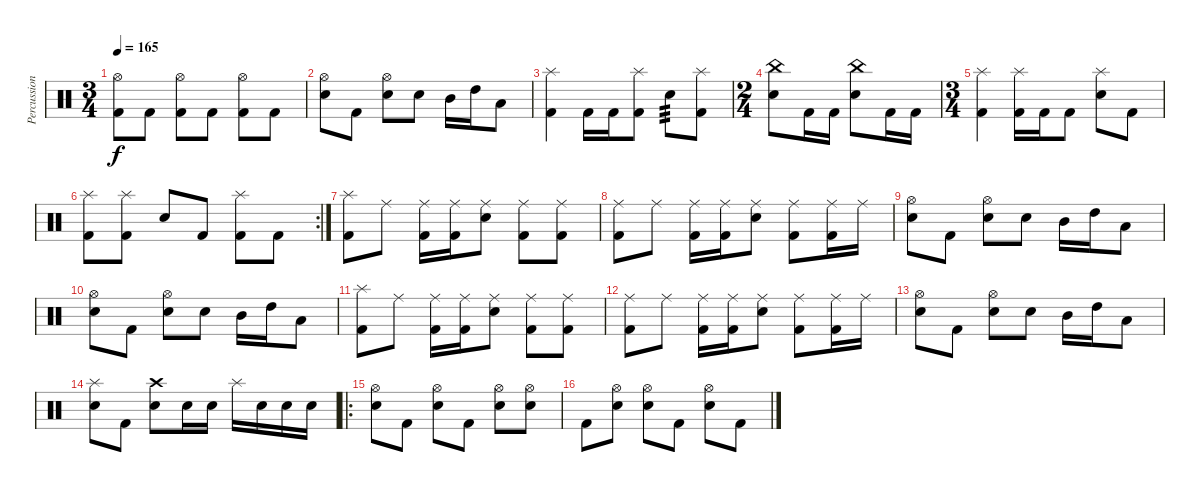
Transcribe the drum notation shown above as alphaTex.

\track ("Percussion" "Percussion") {instrument percussion}
\staff {score}
\articulation defaults
\ts (3 4)
\tempo 165
\clef neutral
\ks c
("Hi-Hat (open)" "Kick (hit) 2").8{dy f} "Kick (hit) 2".8 ("Hi-Hat (open)" "Kick (hit) 2").8 "Kick (hit) 2".8 ("Hi-Hat (open)" "Kick (hit) 2").8 "Kick (hit) 2".8 |
("Hi-Hat (open)" "Electric Snare (hit)").8 "Kick (hit) 2".8 ("Hi-Hat (open)" "Electric Snare (hit)").8 "Electric Snare (hit)".8 "Mid Tom (hit)".16 "High Tom (hit)".16 "Low Tom (hit)".8 |
("Splash (hit)" "Kick (hit) 2").4 "Kick (hit) 2".16 "Kick (hit) 2".16 ("Splash (hit)" "Kick (hit) 2").8 "Electric Snare (hit)".8{tp 3} ("Splash (hit)" "Kick (hit) 2").8 |
\ts (2 4)
("China (hit)" "Electric Snare (hit)").8 "Kick (hit) 2".16 "Kick (hit) 2".16 ("China (hit)" "Electric Snare (hit)").8 "Kick (hit) 2".16 "Kick (hit) 2".16 |
\ts (3 4)
("Splash (hit)" "Kick (hit) 2").4 ("Splash (hit)" "Kick (hit) 2").16 "Kick (hit) 2".16 "Kick (hit) 2".8 ("Splash (hit)" "Electric Snare (hit)").8 "Kick (hit) 2".8 |
\rc 2
("Splash (hit)" "Kick (hit) 2").8 ("Splash (hit)" "Kick (hit) 2").8 "Electric Snare (hit)".8 "Kick (hit) 2".8 ("Splash (hit)" "Kick (hit) 2").8 "Kick (hit) 2".8 |
("Splash (hit)" "Kick (hit) 2").8 "Ride (middle)".8 ("Ride (middle)" "Kick (hit) 2").16 ("Ride (middle)" "Kick (hit) 2").16 ("Ride (middle)" "Electric Snare (hit)").8 ("Ride (middle)" "Kick (hit) 2").8 ("Ride (middle)" "Kick (hit) 2").8 |
("Ride (middle)" "Kick (hit) 2").8 "Ride (middle)".8 ("Ride (middle)" "Kick (hit) 2").16 ("Ride (middle)" "Kick (hit) 2").16 ("Ride (middle)" "Electric Snare (hit)").8 ("Ride (middle)" "Kick (hit) 2").8 ("Ride (middle)" "Kick (hit) 2").16 "Ride (middle)".16 |
("Hi-Hat (open)" "Electric Snare (hit)").8 "Kick (hit) 2".8 ("Hi-Hat (open)" "Electric Snare (hit)").8 "Electric Snare (hit)".8 "Mid Tom (hit)".16 "High Tom (hit)".16 "Low Tom (hit)".8 |
("Hi-Hat (open)" "Electric Snare (hit)").8 "Kick (hit) 2".8 ("Hi-Hat (open)" "Electric Snare (hit)").8 "Electric Snare (hit)".8 "Mid Tom (hit)".16 "High Tom (hit)".16 "Low Tom (hit)".8 |
("Splash (hit)" "Kick (hit) 2").8 "Ride (middle)".8 ("Ride (middle)" "Kick (hit) 2").16 ("Ride (middle)" "Kick (hit) 2").16 ("Ride (middle)" "Electric Snare (hit)").8 ("Ride (middle)" "Kick (hit) 2").8 ("Ride (middle)" "Kick (hit) 2").8 |
("Ride (middle)" "Kick (hit) 2").8 "Ride (middle)".8 ("Ride (middle)" "Kick (hit) 2").16 ("Ride (middle)" "Kick (hit) 2").16 ("Ride (middle)" "Electric Snare (hit)").8 ("Ride (middle)" "Kick (hit) 2").8 ("Ride (middle)" "Kick (hit) 2").16 "Ride (middle)".16 |
("Hi-Hat (open)" "Electric Snare (hit)").8 "Kick (hit) 2".8 ("Hi-Hat (open)" "Electric Snare (hit)").8 "Electric Snare (hit)".8 "Mid Tom (hit)".16 "High Tom (hit)".16 "Low Tom (hit)".8 |
("Splash (hit)" "Electric Snare (hit)").8 "Kick (hit) 2".8 ("Crash high (hit)" "Electric Snare (hit)").8 "Electric Snare (hit)".16 "Electric Snare (hit)".16 "Splash (hit)".16 "Electric Snare (hit)".16 "Electric Snare (hit)".16 "Electric Snare (hit)".16 |
\ro
("Hi-Hat (open)" "Electric Snare (hit)").8 "Kick (hit) 2".8 ("Hi-Hat (open)" "Electric Snare (hit)").8 "Kick (hit) 2".8 ("Hi-Hat (open)" "Electric Snare (hit)").8 ("Hi-Hat (open)" "Electric Snare (hit)").8 |
"Kick (hit) 2".8 ("Hi-Hat (open)" "Electric Snare (hit)").8 ("Hi-Hat (open)" "Electric Snare (hit)").8 "Kick (hit) 2".8 ("Hi-Hat (open)" "Electric Snare (hit)").8 "Kick (hit) 2".8
